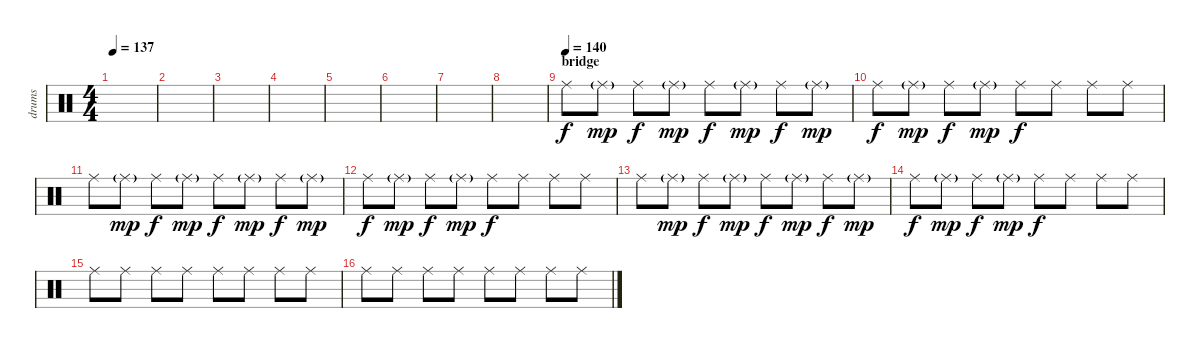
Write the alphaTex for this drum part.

\track ("drums" "drums") {instrument percussion}
\staff {score}
\articulation defaults
\ts (4 4)
\tempo 137
\clef neutral
\ks c
|
|
|
|
|
|
|
|
\section ("" "bridge")
\tempo (140)
"Ride (middle)".8 "Ride (middle)"{g}.8{dy mp} "Ride (middle)".8{dy f} "Ride (middle)"{g}.8{dy mp} "Ride (middle)".8{dy f} "Ride (middle)"{g}.8{dy mp} "Ride (middle)".8{dy f} "Ride (middle)"{g}.8{dy mp} |
"Ride (middle)".8{dy f} "Ride (middle)"{g}.8{dy mp} "Ride (middle)".8{dy f} "Ride (middle)"{g}.8{dy mp} "Ride (middle)".8{dy f} "Ride (middle)".8 "Ride (middle)".8 "Ride (middle)".8 |
"Ride (middle)".8 "Ride (middle)"{g}.8{dy mp} "Ride (middle)".8{dy f} "Ride (middle)"{g}.8{dy mp} "Ride (middle)".8{dy f} "Ride (middle)"{g}.8{dy mp} "Ride (middle)".8{dy f} "Ride (middle)"{g}.8{dy mp} |
"Ride (middle)".8{dy f} "Ride (middle)"{g}.8{dy mp} "Ride (middle)".8{dy f} "Ride (middle)"{g}.8{dy mp} "Ride (middle)".8{dy f} "Ride (middle)".8 "Ride (middle)".8 "Ride (middle)".8 |
"Ride (middle)".8 "Ride (middle)"{g}.8{dy mp} "Ride (middle)".8{dy f} "Ride (middle)"{g}.8{dy mp} "Ride (middle)".8{dy f} "Ride (middle)"{g}.8{dy mp} "Ride (middle)".8{dy f} "Ride (middle)"{g}.8{dy mp} |
"Ride (middle)".8{dy f} "Ride (middle)"{g}.8{dy mp} "Ride (middle)".8{dy f} "Ride (middle)"{g}.8{dy mp} "Ride (middle)".8{dy f} "Ride (middle)".8 "Ride (middle)".8 "Ride (middle)".8 |
"Ride (middle)".8 "Ride (middle)".8 "Ride (middle)".8 "Ride (middle)".8 "Ride (middle)".8 "Ride (middle)".8 "Ride (middle)".8 "Ride (middle)".8 |
"Ride (middle)".8 "Ride (middle)".8 "Ride (middle)".8 "Ride (middle)".8 "Ride (middle)".8 "Ride (middle)".8 "Ride (middle)".8 "Ride (middle)".8
